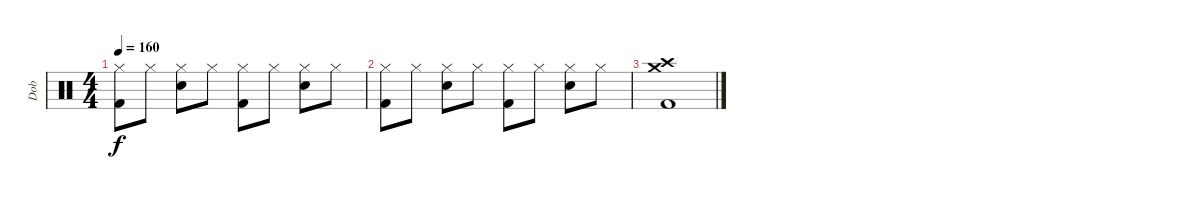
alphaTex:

\track ("Dob" "Dob") {instrument percussion}
\staff {score}
\articulation defaults
\ts (4 4)
\tempo 160
\clef neutral
\ks c
("Hi-Hat (closed)" "Kick (hit) 2").8{dy f} "Hi-Hat (closed)".8 ("Hi-Hat (closed)" "Snare (hit) 2").8 "Hi-Hat (closed)".8 ("Hi-Hat (closed)" "Kick (hit) 2").8 "Hi-Hat (closed)".8 ("Hi-Hat (closed)" "Snare (hit) 2").8 "Hi-Hat (closed)".8 |
("Hi-Hat (closed)" "Kick (hit) 2").8 "Hi-Hat (closed)".8 ("Hi-Hat (closed)" "Snare (hit) 2").8 "Hi-Hat (closed)".8 ("Hi-Hat (closed)" "Kick (hit) 2").8 "Hi-Hat (closed)".8 ("Hi-Hat (closed)" "Snare (hit) 2").8 "Hi-Hat (closed)".8 |
("Crash high (hit)" "Crash medium (hit)" "Kick (hit) 2").1
